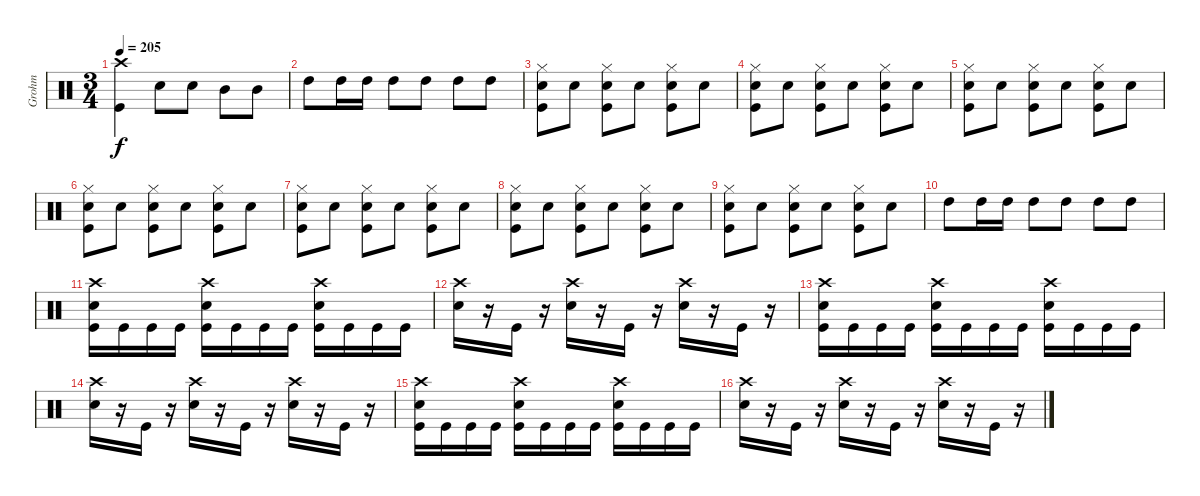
\track ("Grohm" "Grohm") {instrument percussion}
\staff {score}
\articulation defaults
\ts (3 4)
\tempo 205
\clef neutral
\ks c
("Crash high (hit)" "Kick (hit)").4{dy f} "Snare (hit) 2".8 "Snare (hit) 2".8 "Mid Tom (hit)".8 "Mid Tom (hit)".8 |
"High Tom (hit)".8 "High Tom (hit)".16 "High Tom (hit)".16 "High Tom (hit)".8 "High Tom (hit)".8 "High Tom (hit)".8 "High Tom (hit)".8 |
("Hi-Hat (closed)" "Snare (hit) 2" "Kick (hit)").8 "Snare (hit) 2".8 ("Hi-Hat (closed)" "Snare (hit) 2" "Kick (hit)").8 "Snare (hit) 2".8 ("Hi-Hat (closed)" "Snare (hit) 2" "Kick (hit)").8 "Snare (hit) 2".8 |
("Hi-Hat (closed)" "Snare (hit) 2" "Kick (hit)").8 "Snare (hit) 2".8 ("Hi-Hat (closed)" "Snare (hit) 2" "Kick (hit)").8 "Snare (hit) 2".8 ("Hi-Hat (closed)" "Snare (hit) 2" "Kick (hit)").8 "Snare (hit) 2".8 |
("Hi-Hat (closed)" "Snare (hit) 2" "Kick (hit)").8 "Snare (hit) 2".8 ("Hi-Hat (closed)" "Snare (hit) 2" "Kick (hit)").8 "Snare (hit) 2".8 ("Hi-Hat (closed)" "Snare (hit) 2" "Kick (hit)").8 "Snare (hit) 2".8 |
("Hi-Hat (closed)" "Snare (hit) 2" "Kick (hit)").8 "Snare (hit) 2".8 ("Hi-Hat (closed)" "Snare (hit) 2" "Kick (hit)").8 "Snare (hit) 2".8 ("Hi-Hat (closed)" "Snare (hit) 2" "Kick (hit)").8 "Snare (hit) 2".8 |
("Hi-Hat (closed)" "Snare (hit) 2" "Kick (hit)").8 "Snare (hit) 2".8 ("Hi-Hat (closed)" "Snare (hit) 2" "Kick (hit)").8 "Snare (hit) 2".8 ("Hi-Hat (closed)" "Snare (hit) 2" "Kick (hit)").8 "Snare (hit) 2".8 |
("Hi-Hat (closed)" "Snare (hit) 2" "Kick (hit)").8 "Snare (hit) 2".8 ("Hi-Hat (closed)" "Snare (hit) 2" "Kick (hit)").8 "Snare (hit) 2".8 ("Hi-Hat (closed)" "Snare (hit) 2" "Kick (hit)").8 "Snare (hit) 2".8 |
("Hi-Hat (closed)" "Snare (hit) 2" "Kick (hit)").8 "Snare (hit) 2".8 ("Hi-Hat (closed)" "Snare (hit) 2" "Kick (hit)").8 "Snare (hit) 2".8 ("Hi-Hat (closed)" "Snare (hit) 2" "Kick (hit)").8 "Snare (hit) 2".8 |
"High Tom (hit)".8 "High Tom (hit)".16 "High Tom (hit)".16 "High Tom (hit)".8 "High Tom (hit)".8 "High Tom (hit)".8 "High Tom (hit)".8 |
("Crash high (hit)" "Snare (hit) 2" "Kick (hit)").16 "Kick (hit)".16 "Kick (hit)".16 "Kick (hit)".16 ("Crash high (hit)" "Snare (hit) 2" "Kick (hit)").16 "Kick (hit)".16 "Kick (hit)".16 "Kick (hit)".16 ("Crash high (hit)" "Snare (hit) 2" "Kick (hit)").16 "Kick (hit)".16 "Kick (hit)".16 "Kick (hit)".16 |
("Crash high (hit)" "Snare (hit) 2").16 r.16 "Kick (hit)".16 r.16 ("Crash high (hit)" "Snare (hit) 2").16 r.16 "Kick (hit)".16 r.16 ("Crash high (hit)" "Snare (hit) 2").16 r.16 "Kick (hit)".16 r.16 |
("Crash high (hit)" "Snare (hit) 2" "Kick (hit)").16 "Kick (hit)".16 "Kick (hit)".16 "Kick (hit)".16 ("Crash high (hit)" "Snare (hit) 2" "Kick (hit)").16 "Kick (hit)".16 "Kick (hit)".16 "Kick (hit)".16 ("Crash high (hit)" "Snare (hit) 2" "Kick (hit)").16 "Kick (hit)".16 "Kick (hit)".16 "Kick (hit)".16 |
("Crash high (hit)" "Snare (hit) 2").16 r.16 "Kick (hit)".16 r.16 ("Crash high (hit)" "Snare (hit) 2").16 r.16 "Kick (hit)".16 r.16 ("Crash high (hit)" "Snare (hit) 2").16 r.16 "Kick (hit)".16 r.16 |
("Crash high (hit)" "Snare (hit) 2" "Kick (hit)").16 "Kick (hit)".16 "Kick (hit)".16 "Kick (hit)".16 ("Crash high (hit)" "Snare (hit) 2" "Kick (hit)").16 "Kick (hit)".16 "Kick (hit)".16 "Kick (hit)".16 ("Crash high (hit)" "Snare (hit) 2" "Kick (hit)").16 "Kick (hit)".16 "Kick (hit)".16 "Kick (hit)".16 |
("Crash high (hit)" "Snare (hit) 2").16 r.16 "Kick (hit)".16 r.16 ("Crash high (hit)" "Snare (hit) 2").16 r.16 "Kick (hit)".16 r.16 ("Crash high (hit)" "Snare (hit) 2").16 r.16 "Kick (hit)".16 r.16
